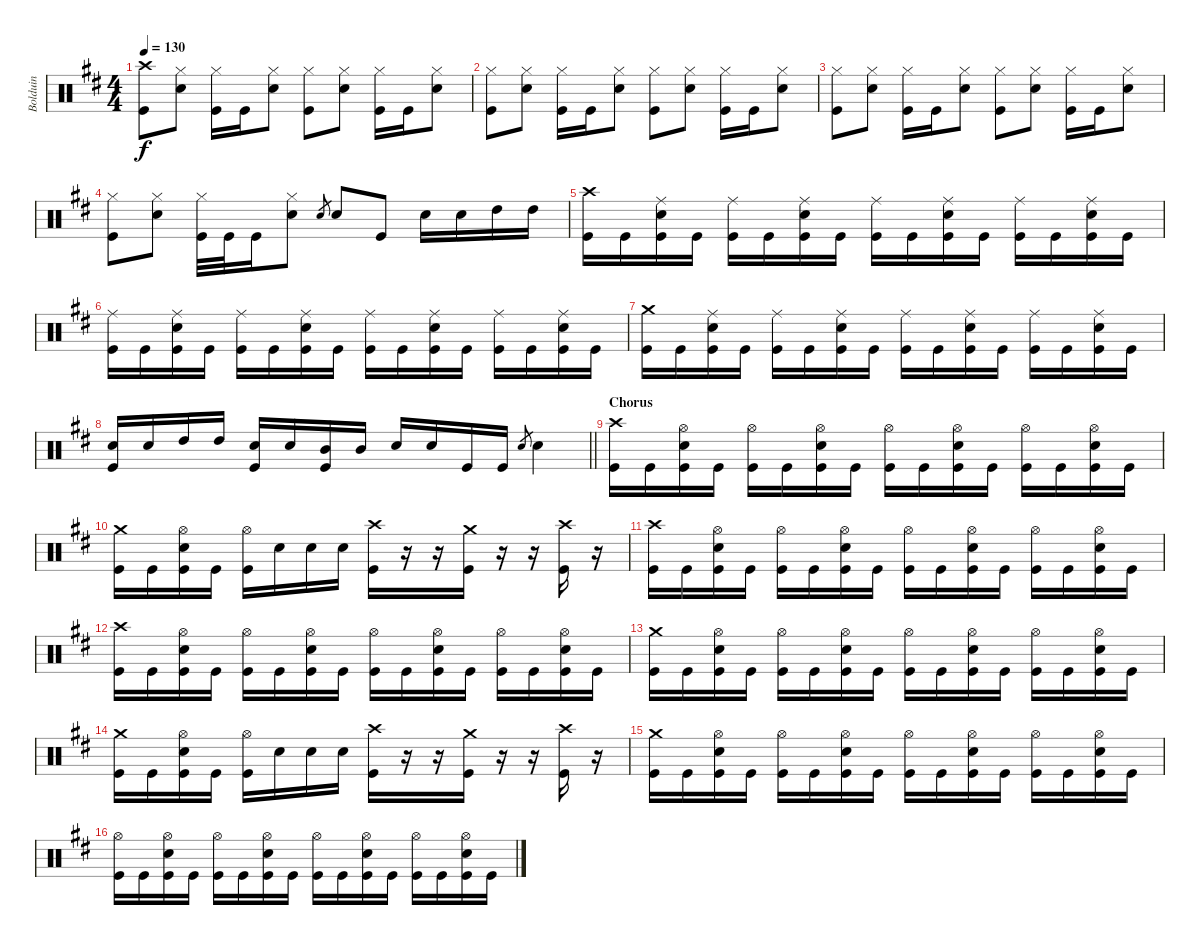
\track ("Bolduin" "Bolduin") {instrument percussion}
\staff {score}
\articulation defaults
\ts (4 4)
\tempo 130
\clef neutral
\ks bminor
("Crash high (hit)" "Kick (hit)").8{dy f} ("Hi-Hat (closed)" "Snare (hit) 2").8 ("Hi-Hat (closed)" "Kick (hit)").16 "Kick (hit)".16 ("Hi-Hat (closed)" "Snare (hit) 2").8 ("Hi-Hat (closed)" "Kick (hit)").8 ("Hi-Hat (closed)" "Snare (hit) 2").8 ("Hi-Hat (closed)" "Kick (hit)").16 "Kick (hit)".16 ("Hi-Hat (closed)" "Snare (hit) 2").8 |
("Hi-Hat (closed)" "Kick (hit)").8 ("Hi-Hat (closed)" "Snare (hit) 2").8 ("Hi-Hat (closed)" "Kick (hit)").16 "Kick (hit)".16 ("Hi-Hat (closed)" "Snare (hit) 2").8 ("Hi-Hat (closed)" "Kick (hit)").8 ("Hi-Hat (closed)" "Snare (hit) 2").8 ("Hi-Hat (closed)" "Kick (hit)").16 "Kick (hit)".16 ("Hi-Hat (closed)" "Snare (hit) 2").8 |
("Hi-Hat (closed)" "Kick (hit)").8 ("Hi-Hat (closed)" "Snare (hit) 2").8 ("Hi-Hat (closed)" "Kick (hit)").16 "Kick (hit)".16 ("Hi-Hat (closed)" "Snare (hit) 2").8 ("Hi-Hat (closed)" "Kick (hit)").8 ("Hi-Hat (closed)" "Snare (hit) 2").8 ("Hi-Hat (closed)" "Kick (hit)").16 "Kick (hit)".16 ("Hi-Hat (closed)" "Snare (hit) 2").8 |
("Kick (hit)" "Hi-Hat (closed)").8 ("Snare (hit) 2" "Hi-Hat (closed)").8 ("Kick (hit)" "Hi-Hat (closed)").32 "Kick (hit)".32 "Kick (hit)".16 ("Snare (hit) 2" "Hi-Hat (closed)").8 "Snare (hit) 2".8{gr} "Snare (hit) 2".8 "Kick (hit)".8 "Snare (hit) 2".16 "Snare (hit) 2".16 "High Tom (hit)".16 "High Tom (hit)".16 |
("Kick (hit)" "Crash high (hit)").16 "Kick (hit)".16 ("Kick (hit)" "Ride (middle)" "Snare (hit) 2").16 "Kick (hit)".16 ("Kick (hit)" "Ride (middle)").16 "Kick (hit)".16 ("Kick (hit)" "Ride (middle)" "Snare (hit) 2").16 "Kick (hit)".16 ("Kick (hit)" "Ride (middle)").16 "Kick (hit)".16 ("Kick (hit)" "Ride (middle)" "Snare (hit) 2").16 "Kick (hit)".16 ("Kick (hit)" "Ride (middle)").16 "Kick (hit)".16 ("Kick (hit)" "Ride (middle)" "Snare (hit) 2").16 "Kick (hit)".16 |
("Kick (hit)" "Ride (middle)").16 "Kick (hit)".16 ("Kick (hit)" "Ride (middle)" "Snare (hit) 2").16 "Kick (hit)".16 ("Kick (hit)" "Ride (middle)").16 "Kick (hit)".16 ("Kick (hit)" "Ride (middle)" "Snare (hit) 2").16 "Kick (hit)".16 ("Kick (hit)" "Ride (middle)").16 "Kick (hit)".16 ("Kick (hit)" "Ride (middle)" "Snare (hit) 2").16 "Kick (hit)".16 ("Kick (hit)" "Ride (middle)").16 "Kick (hit)".16 ("Kick (hit)" "Ride (middle)" "Snare (hit) 2").16 "Kick (hit)".16 |
("Kick (hit)" "Crash medium (hit)").16 "Kick (hit)".16 ("Kick (hit)" "Ride (middle)" "Snare (hit) 2").16 "Kick (hit)".16 ("Kick (hit)" "Ride (middle)").16 "Kick (hit)".16 ("Kick (hit)" "Ride (middle)" "Snare (hit) 2").16 "Kick (hit)".16 ("Kick (hit)" "Ride (middle)").16 "Kick (hit)".16 ("Kick (hit)" "Ride (middle)" "Snare (hit) 2").16 "Kick (hit)".16 ("Kick (hit)" "Ride (middle)").16 "Kick (hit)".16 ("Kick (hit)" "Ride (middle)" "Snare (hit) 2").16 "Kick (hit)".16 |
\barLineRight lightlight
("Snare (hit) 2" "Kick (hit)").16 "Snare (hit) 2".16 "High Tom (hit)".16 "High Tom (hit)".16 ("Snare (hit) 2" "Kick (hit)").16 "Snare (hit) 2".16 ("Kick (hit)" "Mid Tom (hit)").16 "Mid Tom (hit)".16 "Snare (hit) 2".16 "Snare (hit) 2".16 "Kick (hit)".16 "Kick (hit)".16 "Snare (hit) 2".8{gr} "Snare (hit) 2".4 |
\section ("" "Chorus")
("Crash high (hit)" "Kick (hit)").16 "Kick (hit)".16 ("Hi-Hat (open)" "Kick (hit)" "Snare (hit) 2").16 "Kick (hit)".16 ("Hi-Hat (open)" "Kick (hit)").16 "Kick (hit)".16 ("Hi-Hat (open)" "Kick (hit)" "Snare (hit) 2").16 "Kick (hit)".16 ("Hi-Hat (open)" "Kick (hit)").16 "Kick (hit)".16 ("Hi-Hat (open)" "Kick (hit)" "Snare (hit) 2").16 "Kick (hit)".16 ("Hi-Hat (open)" "Kick (hit)").16 "Kick (hit)".16 ("Hi-Hat (open)" "Kick (hit)" "Snare (hit) 2").16 "Kick (hit)".16 |
("Crash medium (hit)" "Kick (hit)").16 "Kick (hit)".16 ("Hi-Hat (open)" "Kick (hit)" "Snare (hit) 2").16 "Kick (hit)".16 ("Hi-Hat (open)" "Kick (hit)").16 "Snare (hit) 2".16 "Snare (hit) 2".16 "Snare (hit) 2".16 ("Kick (hit)" "Crash high (hit)").16 r.16 r.16 ("Crash medium (hit)" "Kick (hit)").16 r.16 r.16 ("Kick (hit)" "Crash high (hit)").16 r.16 |
("Kick (hit)" "Crash high (hit)").16 "Kick (hit)".16 ("Kick (hit)" "Hi-Hat (open)" "Snare (hit) 2").16 "Kick (hit)".16 ("Kick (hit)" "Hi-Hat (open)").16 "Kick (hit)".16 ("Kick (hit)" "Hi-Hat (open)" "Snare (hit) 2").16 "Kick (hit)".16 ("Kick (hit)" "Hi-Hat (open)").16 "Kick (hit)".16 ("Kick (hit)" "Hi-Hat (open)" "Snare (hit) 2").16 "Kick (hit)".16 ("Kick (hit)" "Hi-Hat (open)").16 "Kick (hit)".16 ("Kick (hit)" "Hi-Hat (open)" "Snare (hit) 2").16 "Kick (hit)".16 |
("Kick (hit)" "Crash high (hit)").16 "Kick (hit)".16 ("Kick (hit)" "Hi-Hat (open)" "Snare (hit) 2").16 "Kick (hit)".16 ("Kick (hit)" "Hi-Hat (open)").16 "Kick (hit)".16 ("Kick (hit)" "Hi-Hat (open)" "Snare (hit) 2").16 "Kick (hit)".16 ("Kick (hit)" "Hi-Hat (open)").16 "Kick (hit)".16 ("Kick (hit)" "Hi-Hat (open)" "Snare (hit) 2").16 "Kick (hit)".16 ("Kick (hit)" "Hi-Hat (open)").16 "Kick (hit)".16 ("Kick (hit)" "Hi-Hat (open)" "Snare (hit) 2").16 "Kick (hit)".16 |
("Kick (hit)" "Crash medium (hit)").16 "Kick (hit)".16 ("Kick (hit)" "Hi-Hat (open)" "Snare (hit) 2").16 "Kick (hit)".16 ("Kick (hit)" "Hi-Hat (open)").16 "Kick (hit)".16 ("Kick (hit)" "Hi-Hat (open)" "Snare (hit) 2").16 "Kick (hit)".16 ("Kick (hit)" "Hi-Hat (open)").16 "Kick (hit)".16 ("Kick (hit)" "Hi-Hat (open)" "Snare (hit) 2").16 "Kick (hit)".16 ("Kick (hit)" "Hi-Hat (open)").16 "Kick (hit)".16 ("Kick (hit)" "Hi-Hat (open)" "Snare (hit) 2").16 "Kick (hit)".16 |
("Crash medium (hit)" "Kick (hit)").16 "Kick (hit)".16 ("Hi-Hat (open)" "Kick (hit)" "Snare (hit) 2").16 "Kick (hit)".16 ("Hi-Hat (open)" "Kick (hit)").16 "Snare (hit) 2".16 "Snare (hit) 2".16 "Snare (hit) 2".16 ("Kick (hit)" "Crash high (hit)").16 r.16 r.16 ("Crash medium (hit)" "Kick (hit)").16 r.16 r.16 ("Kick (hit)" "Crash high (hit)").16 r.16 |
("Kick (hit)" "Crash medium (hit)").16 "Kick (hit)".16 ("Kick (hit)" "Hi-Hat (open)" "Snare (hit) 2").16 "Kick (hit)".16 ("Kick (hit)" "Hi-Hat (open)").16 "Kick (hit)".16 ("Kick (hit)" "Hi-Hat (open)" "Snare (hit) 2").16 "Kick (hit)".16 ("Kick (hit)" "Hi-Hat (open)").16 "Kick (hit)".16 ("Kick (hit)" "Hi-Hat (open)" "Snare (hit) 2").16 "Kick (hit)".16 ("Kick (hit)" "Hi-Hat (open)").16 "Kick (hit)".16 ("Kick (hit)" "Hi-Hat (open)" "Snare (hit) 2").16 "Kick (hit)".16 |
("Kick (hit)" "Hi-Hat (open)").16 "Kick (hit)".16 ("Kick (hit)" "Hi-Hat (open)" "Snare (hit) 2").16 "Kick (hit)".16 ("Kick (hit)" "Hi-Hat (open)").16 "Kick (hit)".16 ("Kick (hit)" "Hi-Hat (open)" "Snare (hit) 2").16 "Kick (hit)".16 ("Kick (hit)" "Hi-Hat (open)").16 "Kick (hit)".16 ("Kick (hit)" "Hi-Hat (open)" "Snare (hit) 2").16 "Kick (hit)".16 ("Kick (hit)" "Hi-Hat (open)").16 "Kick (hit)".16 ("Kick (hit)" "Hi-Hat (open)" "Snare (hit) 2").16 "Kick (hit)".16
